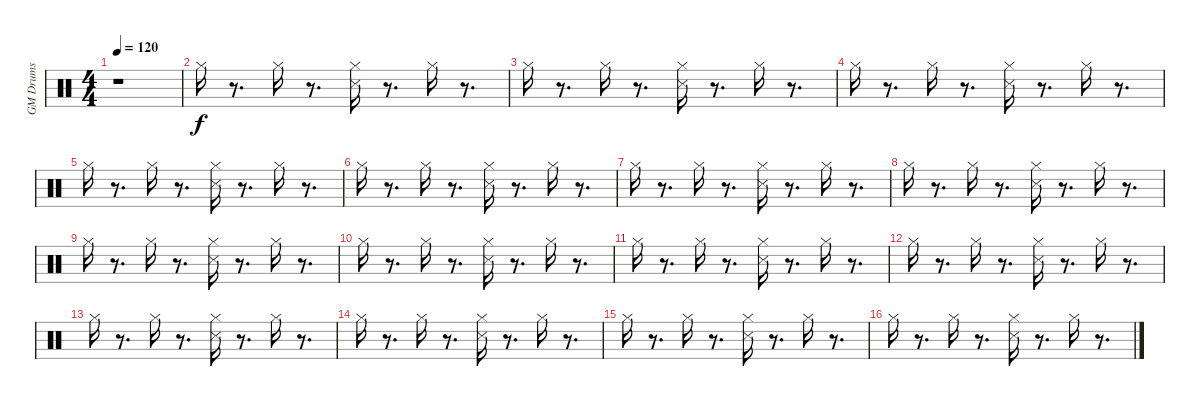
\track ("GM Drums" "GM Drums") {instrument percussion}
\staff {score}
\articulation defaults
\ts (4 4)
\tempo 120
\clef neutral
\ks c
r.1{dy f} |
"Hi-Hat (closed)".16 r.8{d} "Hi-Hat (closed)".16 r.8{d} ("Snare (side stick) 3" "Hi-Hat (closed)").16 r.8{d} "Hi-Hat (closed)".16 r.8{d} |
"Hi-Hat (closed)".16 r.8{d} "Hi-Hat (closed)".16 r.8{d} ("Snare (side stick) 3" "Hi-Hat (closed)").16 r.8{d} "Hi-Hat (closed)".16 r.8{d} |
"Hi-Hat (closed)".16 r.8{d} "Hi-Hat (closed)".16 r.8{d} ("Snare (side stick) 3" "Hi-Hat (closed)").16 r.8{d} "Hi-Hat (closed)".16 r.8{d} |
"Hi-Hat (closed)".16 r.8{d} "Hi-Hat (closed)".16 r.8{d} ("Snare (side stick) 3" "Hi-Hat (closed)").16 r.8{d} "Hi-Hat (closed)".16 r.8{d} |
"Hi-Hat (closed)".16 r.8{d} "Hi-Hat (closed)".16 r.8{d} ("Snare (side stick) 3" "Hi-Hat (closed)").16 r.8{d} "Hi-Hat (closed)".16 r.8{d} |
"Hi-Hat (closed)".16 r.8{d} "Hi-Hat (closed)".16 r.8{d} ("Snare (side stick) 3" "Hi-Hat (closed)").16 r.8{d} "Hi-Hat (closed)".16 r.8{d} |
"Hi-Hat (closed)".16 r.8{d} "Hi-Hat (closed)".16 r.8{d} ("Snare (side stick) 3" "Hi-Hat (closed)").16 r.8{d} "Hi-Hat (closed)".16 r.8{d} |
"Hi-Hat (closed)".16 r.8{d} "Hi-Hat (closed)".16 r.8{d} ("Snare (side stick) 3" "Hi-Hat (closed)").16 r.8{d} "Hi-Hat (closed)".16 r.8{d} |
"Hi-Hat (closed)".16 r.8{d} "Hi-Hat (closed)".16 r.8{d} ("Snare (side stick) 3" "Hi-Hat (closed)").16 r.8{d} "Hi-Hat (closed)".16 r.8{d} |
"Hi-Hat (closed)".16 r.8{d} "Hi-Hat (closed)".16 r.8{d} ("Snare (side stick) 3" "Hi-Hat (closed)").16 r.8{d} "Hi-Hat (closed)".16 r.8{d} |
"Hi-Hat (closed)".16 r.8{d} "Hi-Hat (closed)".16 r.8{d} ("Snare (side stick) 3" "Hi-Hat (closed)").16 r.8{d} "Hi-Hat (closed)".16 r.8{d} |
"Hi-Hat (closed)".16 r.8{d} "Hi-Hat (closed)".16 r.8{d} ("Snare (side stick) 3" "Hi-Hat (closed)").16 r.8{d} "Hi-Hat (closed)".16 r.8{d} |
"Hi-Hat (closed)".16 r.8{d} "Hi-Hat (closed)".16 r.8{d} ("Snare (side stick) 3" "Hi-Hat (closed)").16 r.8{d} "Hi-Hat (closed)".16 r.8{d} |
"Hi-Hat (closed)".16 r.8{d} "Hi-Hat (closed)".16 r.8{d} ("Snare (side stick) 3" "Hi-Hat (closed)").16 r.8{d} "Hi-Hat (closed)".16 r.8{d} |
"Hi-Hat (closed)".16 r.8{d} "Hi-Hat (closed)".16 r.8{d} ("Snare (side stick) 3" "Hi-Hat (closed)").16 r.8{d} "Hi-Hat (closed)".16 r.8{d}
